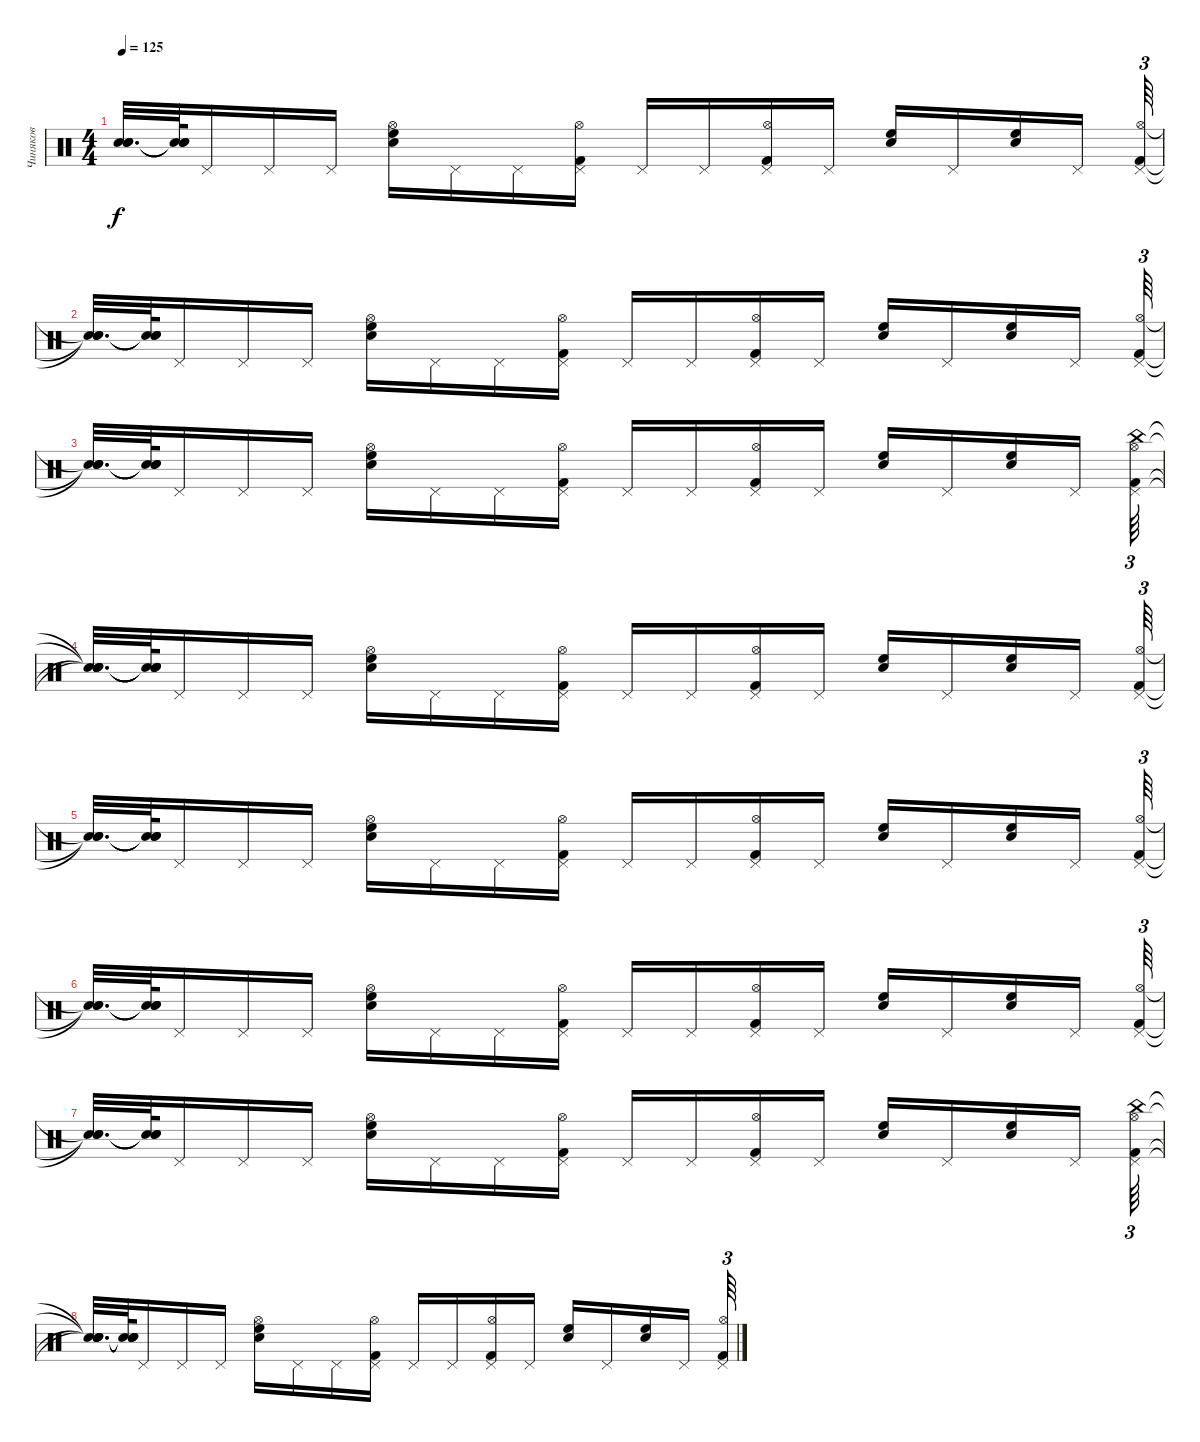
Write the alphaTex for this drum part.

\track ("Чиняков" "Чиняков") {instrument percussion}
\staff {score}
\articulation defaults
\ts (4 4)
\tempo 125
\clef neutral
\ks c
("Snare (hit)"{t} "Snare (hit)"{t} "Snare (hit)"{t}).32{d dy f} ("Snare (hit)"{t} "Snare (hit)"{t} "Snare (hit)"{t}).64 "Pedal Hi-Hat (hit)".16 "Pedal Hi-Hat (hit)".16 "Pedal Hi-Hat (hit)".16 ("Electric Snare (hit)" "High Floor Tom (hit)" "Hi-Hat (open)").16 "Pedal Hi-Hat (hit)".16 "Pedal Hi-Hat (hit)".16 ("Pedal Hi-Hat (hit)" "Kick (hit) 2" "Hi-Hat (open)").16 "Pedal Hi-Hat (hit)".16 "Pedal Hi-Hat (hit)".16 ("Pedal Hi-Hat (hit)" "Kick (hit) 2" "Hi-Hat (open)").16 "Pedal Hi-Hat (hit)".16 ("High Floor Tom (hit)" "Electric Snare (hit)").16 "Pedal Hi-Hat (hit)".16 ("High Floor Tom (hit)" "Electric Snare (hit)").16 "Pedal Hi-Hat (hit)".16 ("Pedal Hi-Hat (hit)" "Kick (hit) 2" "Hi-Hat (open)").64{tu (3 2)} |
("Snare (hit)"{t} "Snare (hit)"{t} "Snare (hit)"{t}).32{d} ("Snare (hit)"{t} "Snare (hit)"{t} "Snare (hit)"{t}).64 "Pedal Hi-Hat (hit)".16 "Pedal Hi-Hat (hit)".16 "Pedal Hi-Hat (hit)".16 ("Electric Snare (hit)" "High Floor Tom (hit)" "Hi-Hat (open)").16 "Pedal Hi-Hat (hit)".16 "Pedal Hi-Hat (hit)".16 ("Pedal Hi-Hat (hit)" "Kick (hit) 2" "Hi-Hat (open)").16 "Pedal Hi-Hat (hit)".16 "Pedal Hi-Hat (hit)".16 ("Pedal Hi-Hat (hit)" "Kick (hit) 2" "Hi-Hat (open)").16 "Pedal Hi-Hat (hit)".16 ("High Floor Tom (hit)" "Electric Snare (hit)").16 "Pedal Hi-Hat (hit)".16 ("High Floor Tom (hit)" "Electric Snare (hit)").16 "Pedal Hi-Hat (hit)".16 ("Pedal Hi-Hat (hit)" "Kick (hit) 2" "Hi-Hat (open)").64{tu (3 2)} |
("Snare (hit)"{t} "Snare (hit)"{t} "Snare (hit)"{t}).32{d} ("Snare (hit)"{t} "Snare (hit)"{t} "Snare (hit)"{t}).64 "Pedal Hi-Hat (hit)".16 "Pedal Hi-Hat (hit)".16 "Pedal Hi-Hat (hit)".16 ("Electric Snare (hit)" "High Floor Tom (hit)" "Hi-Hat (open)").16 "Pedal Hi-Hat (hit)".16 "Pedal Hi-Hat (hit)".16 ("Pedal Hi-Hat (hit)" "Kick (hit) 2" "Hi-Hat (open)").16 "Pedal Hi-Hat (hit)".16 "Pedal Hi-Hat (hit)".16 ("Pedal Hi-Hat (hit)" "Kick (hit) 2" "Hi-Hat (open)").16 "Pedal Hi-Hat (hit)".16 ("High Floor Tom (hit)" "Electric Snare (hit)").16 "Pedal Hi-Hat (hit)".16 ("High Floor Tom (hit)" "Electric Snare (hit)").16 "Pedal Hi-Hat (hit)".16 ("Pedal Hi-Hat (hit)" "Kick (hit) 2" "Hi-Hat (open)" "China (hit)").64{tu (3 2)} |
("Snare (hit)"{t} "Snare (hit)"{t} "Snare (hit)"{t} "Snare (hit)"{t}).32{d} ("Snare (hit)"{t} "Snare (hit)"{t} "Snare (hit)"{t} "Snare (hit)"{t}).64 "Pedal Hi-Hat (hit)".16 "Pedal Hi-Hat (hit)".16 "Pedal Hi-Hat (hit)".16 ("Electric Snare (hit)" "High Floor Tom (hit)" "Hi-Hat (open)").16 "Pedal Hi-Hat (hit)".16 "Pedal Hi-Hat (hit)".16 ("Pedal Hi-Hat (hit)" "Kick (hit) 2" "Hi-Hat (open)").16 "Pedal Hi-Hat (hit)".16 "Pedal Hi-Hat (hit)".16 ("Pedal Hi-Hat (hit)" "Kick (hit) 2" "Hi-Hat (open)").16 "Pedal Hi-Hat (hit)".16 ("High Floor Tom (hit)" "Electric Snare (hit)").16 "Pedal Hi-Hat (hit)".16 ("High Floor Tom (hit)" "Electric Snare (hit)").16 "Pedal Hi-Hat (hit)".16 ("Pedal Hi-Hat (hit)" "Kick (hit) 2" "Hi-Hat (open)").64{tu (3 2)} |
("Snare (hit)"{t} "Snare (hit)"{t} "Snare (hit)"{t}).32{d} ("Snare (hit)"{t} "Snare (hit)"{t} "Snare (hit)"{t}).64 "Pedal Hi-Hat (hit)".16 "Pedal Hi-Hat (hit)".16 "Pedal Hi-Hat (hit)".16 ("Electric Snare (hit)" "High Floor Tom (hit)" "Hi-Hat (open)").16 "Pedal Hi-Hat (hit)".16 "Pedal Hi-Hat (hit)".16 ("Pedal Hi-Hat (hit)" "Kick (hit) 2" "Hi-Hat (open)").16 "Pedal Hi-Hat (hit)".16 "Pedal Hi-Hat (hit)".16 ("Pedal Hi-Hat (hit)" "Kick (hit) 2" "Hi-Hat (open)").16 "Pedal Hi-Hat (hit)".16 ("High Floor Tom (hit)" "Electric Snare (hit)").16 "Pedal Hi-Hat (hit)".16 ("High Floor Tom (hit)" "Electric Snare (hit)").16 "Pedal Hi-Hat (hit)".16 ("Pedal Hi-Hat (hit)" "Kick (hit) 2" "Hi-Hat (open)").64{tu (3 2)} |
("Snare (hit)"{t} "Snare (hit)"{t} "Snare (hit)"{t}).32{d} ("Snare (hit)"{t} "Snare (hit)"{t} "Snare (hit)"{t}).64 "Pedal Hi-Hat (hit)".16 "Pedal Hi-Hat (hit)".16 "Pedal Hi-Hat (hit)".16 ("Electric Snare (hit)" "High Floor Tom (hit)" "Hi-Hat (open)").16 "Pedal Hi-Hat (hit)".16 "Pedal Hi-Hat (hit)".16 ("Pedal Hi-Hat (hit)" "Kick (hit) 2" "Hi-Hat (open)").16 "Pedal Hi-Hat (hit)".16 "Pedal Hi-Hat (hit)".16 ("Pedal Hi-Hat (hit)" "Kick (hit) 2" "Hi-Hat (open)").16 "Pedal Hi-Hat (hit)".16 ("High Floor Tom (hit)" "Electric Snare (hit)").16 "Pedal Hi-Hat (hit)".16 ("High Floor Tom (hit)" "Electric Snare (hit)").16 "Pedal Hi-Hat (hit)".16 ("Pedal Hi-Hat (hit)" "Kick (hit) 2" "Hi-Hat (open)").64{tu (3 2)} |
("Snare (hit)"{t} "Snare (hit)"{t} "Snare (hit)"{t}).32{d} ("Snare (hit)"{t} "Snare (hit)"{t} "Snare (hit)"{t}).64 "Pedal Hi-Hat (hit)".16 "Pedal Hi-Hat (hit)".16 "Pedal Hi-Hat (hit)".16 ("Electric Snare (hit)" "High Floor Tom (hit)" "Hi-Hat (open)").16 "Pedal Hi-Hat (hit)".16 "Pedal Hi-Hat (hit)".16 ("Pedal Hi-Hat (hit)" "Kick (hit) 2" "Hi-Hat (open)").16 "Pedal Hi-Hat (hit)".16 "Pedal Hi-Hat (hit)".16 ("Pedal Hi-Hat (hit)" "Kick (hit) 2" "Hi-Hat (open)").16 "Pedal Hi-Hat (hit)".16 ("High Floor Tom (hit)" "Electric Snare (hit)").16 "Pedal Hi-Hat (hit)".16 ("High Floor Tom (hit)" "Electric Snare (hit)").16 "Pedal Hi-Hat (hit)".16 ("Pedal Hi-Hat (hit)" "Kick (hit) 2" "Hi-Hat (open)" "China (hit)").64{tu (3 2)} |
("Snare (hit)"{t} "Snare (hit)"{t} "Snare (hit)"{t} "Snare (hit)"{t}).32{d} ("Snare (hit)"{t} "Snare (hit)"{t} "Snare (hit)"{t} "Snare (hit)"{t}).64 "Pedal Hi-Hat (hit)".16 "Pedal Hi-Hat (hit)".16 "Pedal Hi-Hat (hit)".16 ("Electric Snare (hit)" "High Floor Tom (hit)" "Hi-Hat (open)").16 "Pedal Hi-Hat (hit)".16 "Pedal Hi-Hat (hit)".16 ("Pedal Hi-Hat (hit)" "Kick (hit) 2" "Hi-Hat (open)").16 "Pedal Hi-Hat (hit)".16 "Pedal Hi-Hat (hit)".16 ("Pedal Hi-Hat (hit)" "Kick (hit) 2" "Hi-Hat (open)").16 "Pedal Hi-Hat (hit)".16 ("High Floor Tom (hit)" "Electric Snare (hit)").16 "Pedal Hi-Hat (hit)".16 ("High Floor Tom (hit)" "Electric Snare (hit)").16 "Pedal Hi-Hat (hit)".16 ("Pedal Hi-Hat (hit)" "Kick (hit) 2" "Hi-Hat (open)").64{tu (3 2)}
